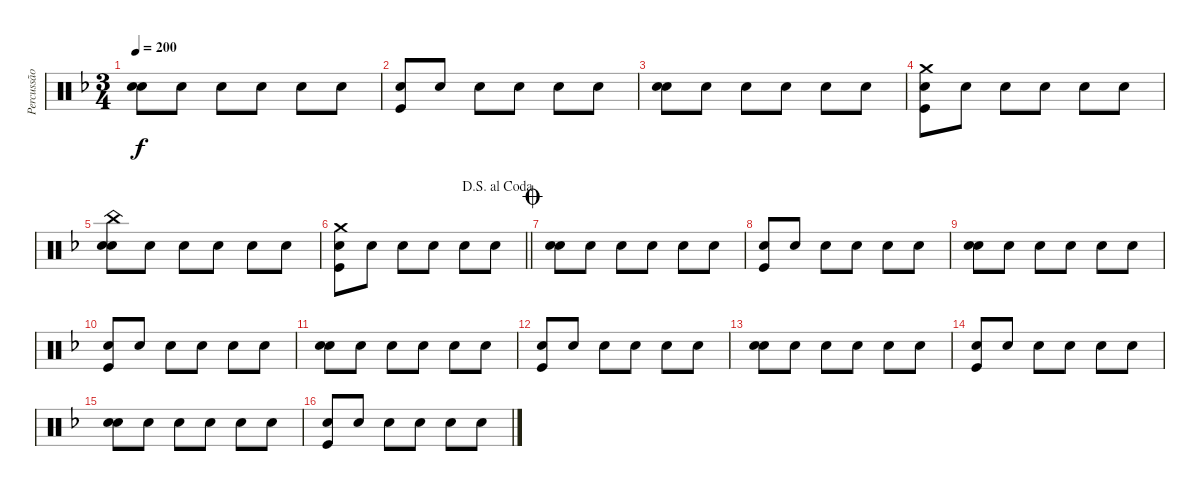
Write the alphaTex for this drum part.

\track ("Percussão" "Percussão") {instrument percussion}
\staff {score}
\articulation defaults
\ts (3 4)
\tempo 200
\clef neutral
\ks dminor
("Hand Clap (hit)" "Snare (hit) 2").8{dy f} "Hand Clap (hit)".8 "Hand Clap (hit)".8 "Hand Clap (hit)".8 "Hand Clap (hit)".8 "Hand Clap (hit)".8 |
("Hand Clap (hit)" "Kick (hit)").8 "Hand Clap (hit)".8 "Hand Clap (hit)".8 "Hand Clap (hit)".8 "Hand Clap (hit)".8 "Hand Clap (hit)".8 |
("Hand Clap (hit)" "Snare (hit) 2").8 "Hand Clap (hit)".8 "Hand Clap (hit)".8 "Hand Clap (hit)".8 "Hand Clap (hit)".8 "Hand Clap (hit)".8 |
("Hand Clap (hit)" "Kick (hit)" "Crash medium (hit)").8 "Hand Clap (hit)".8 "Hand Clap (hit)".8 "Hand Clap (hit)".8 "Hand Clap (hit)".8 "Hand Clap (hit)".8 |
("Hand Clap (hit)" "Snare (hit) 2" "China (hit)").8 "Hand Clap (hit)".8 "Hand Clap (hit)".8 "Hand Clap (hit)".8 "Hand Clap (hit)".8 "Hand Clap (hit)".8 |
\jump dalsegnoalcoda
\barLineRight lightlight
("Hand Clap (hit)" "Kick (hit)" "Crash medium (hit)").8 "Hand Clap (hit)".8 "Hand Clap (hit)".8 "Hand Clap (hit)".8 "Hand Clap (hit)".8 "Hand Clap (hit)".8 |
\jump coda
("Hand Clap (hit)" "Snare (hit) 2").8 "Hand Clap (hit)".8 "Hand Clap (hit)".8 "Hand Clap (hit)".8 "Hand Clap (hit)".8 "Hand Clap (hit)".8 |
("Hand Clap (hit)" "Kick (hit)").8 "Hand Clap (hit)".8 "Hand Clap (hit)".8 "Hand Clap (hit)".8 "Hand Clap (hit)".8 "Hand Clap (hit)".8 |
("Hand Clap (hit)" "Snare (hit) 2").8 "Hand Clap (hit)".8 "Hand Clap (hit)".8 "Hand Clap (hit)".8 "Hand Clap (hit)".8 "Hand Clap (hit)".8 |
("Hand Clap (hit)" "Kick (hit)").8 "Hand Clap (hit)".8 "Hand Clap (hit)".8 "Hand Clap (hit)".8 "Hand Clap (hit)".8 "Hand Clap (hit)".8 |
("Hand Clap (hit)" "Snare (hit) 2").8 "Hand Clap (hit)".8 "Hand Clap (hit)".8 "Hand Clap (hit)".8 "Hand Clap (hit)".8 "Hand Clap (hit)".8 |
("Hand Clap (hit)" "Kick (hit)").8 "Hand Clap (hit)".8 "Hand Clap (hit)".8 "Hand Clap (hit)".8 "Hand Clap (hit)".8 "Hand Clap (hit)".8 |
("Hand Clap (hit)" "Snare (hit) 2").8 "Hand Clap (hit)".8 "Hand Clap (hit)".8 "Hand Clap (hit)".8 "Hand Clap (hit)".8 "Hand Clap (hit)".8 |
("Hand Clap (hit)" "Kick (hit)").8 "Hand Clap (hit)".8 "Hand Clap (hit)".8 "Hand Clap (hit)".8 "Hand Clap (hit)".8 "Hand Clap (hit)".8 |
("Hand Clap (hit)" "Snare (hit) 2").8 "Hand Clap (hit)".8 "Hand Clap (hit)".8 "Hand Clap (hit)".8 "Hand Clap (hit)".8 "Hand Clap (hit)".8 |
("Hand Clap (hit)" "Kick (hit)").8 "Hand Clap (hit)".8 "Hand Clap (hit)".8 "Hand Clap (hit)".8 "Hand Clap (hit)".8 "Hand Clap (hit)".8
